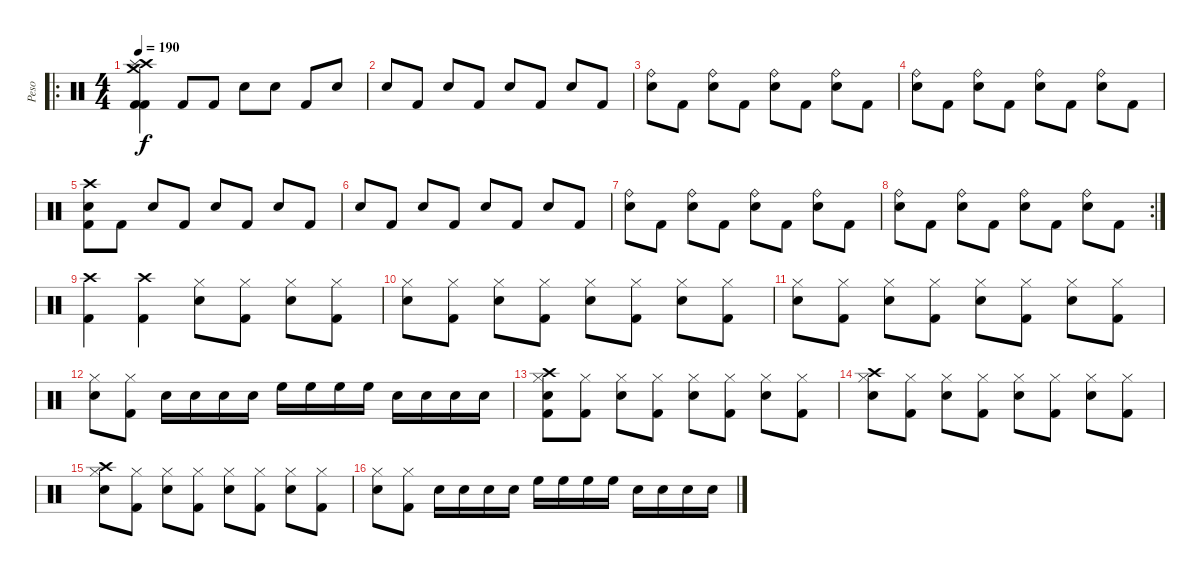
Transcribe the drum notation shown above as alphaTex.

\track ("Peso" "Peso") {instrument percussion}
\staff {score}
\articulation defaults
\ro
\ts (4 4)
\tempo 190
\clef neutral
\ks c
("Crash high (hit)" "Splash (hit)" "Crash medium (hit)" "Kick (hit) 2" "Kick (hit) 2").4{dy f} "Kick (hit) 2".8 "Kick (hit) 2".8 "Snare (hit) 2".8 "Snare (hit) 2".8 "Kick (hit) 2".8 "Snare (hit) 2".8 |
"Snare (hit) 2".8 "Kick (hit) 2".8 "Snare (hit) 2".8 "Kick (hit) 2".8 "Snare (hit) 2".8 "Kick (hit) 2".8 "Snare (hit) 2".8 "Kick (hit) 2".8 |
("Ride (bell)" "Snare (hit) 2").8 "Kick (hit) 2".8 ("Ride (bell)" "Snare (hit) 2").8 "Kick (hit) 2".8 ("Ride (bell)" "Snare (hit) 2").8 "Kick (hit) 2".8 ("Ride (bell)" "Snare (hit) 2").8 "Kick (hit) 2".8 |
("Ride (bell)" "Snare (hit) 2").8 "Kick (hit) 2".8 ("Ride (bell)" "Snare (hit) 2").8 "Kick (hit) 2".8 ("Ride (bell)" "Snare (hit) 2").8 "Kick (hit) 2".8 ("Ride (bell)" "Snare (hit) 2").8 "Kick (hit) 2".8 |
("Crash high (hit)" "Snare (hit) 2" "Kick (hit) 2").8 "Kick (hit) 2".8 "Snare (hit) 2".8 "Kick (hit) 2".8 "Snare (hit) 2".8 "Kick (hit) 2".8 "Snare (hit) 2".8 "Kick (hit) 2".8 |
"Snare (hit) 2".8 "Kick (hit) 2".8 "Snare (hit) 2".8 "Kick (hit) 2".8 "Snare (hit) 2".8 "Kick (hit) 2".8 "Snare (hit) 2".8 "Kick (hit) 2".8 |
("Ride (bell)" "Snare (hit) 2").8 "Kick (hit) 2".8 ("Ride (bell)" "Snare (hit) 2").8 "Kick (hit) 2".8 ("Ride (bell)" "Snare (hit) 2").8 "Kick (hit) 2".8 ("Ride (bell)" "Snare (hit) 2").8 "Kick (hit) 2".8 |
\rc 2
("Ride (bell)" "Snare (hit) 2").8 "Kick (hit) 2".8 ("Ride (bell)" "Snare (hit) 2").8 "Kick (hit) 2".8 ("Ride (bell)" "Snare (hit) 2").8 "Kick (hit) 2".8 ("Ride (bell)" "Snare (hit) 2").8 "Kick (hit) 2".8 |
("Crash high (hit)" "Kick (hit) 2").4 ("Crash high (hit)" "Kick (hit) 2").4 ("Hi-Hat (closed)" "Snare (hit) 2").8 ("Hi-Hat (closed)" "Kick (hit) 2").8 ("Hi-Hat (closed)" "Snare (hit) 2").8 ("Hi-Hat (closed)" "Kick (hit) 2").8 |
("Hi-Hat (closed)" "Snare (hit) 2").8 ("Hi-Hat (closed)" "Kick (hit) 2").8 ("Hi-Hat (closed)" "Snare (hit) 2").8 ("Hi-Hat (closed)" "Kick (hit) 2").8 ("Hi-Hat (closed)" "Snare (hit) 2").8 ("Hi-Hat (closed)" "Kick (hit) 2").8 ("Hi-Hat (closed)" "Snare (hit) 2").8 ("Hi-Hat (closed)" "Kick (hit) 2").8 |
("Hi-Hat (closed)" "Snare (hit) 2").8 ("Hi-Hat (closed)" "Kick (hit) 2").8 ("Hi-Hat (closed)" "Snare (hit) 2").8 ("Hi-Hat (closed)" "Kick (hit) 2").8 ("Hi-Hat (closed)" "Snare (hit) 2").8 ("Hi-Hat (closed)" "Kick (hit) 2").8 ("Hi-Hat (closed)" "Snare (hit) 2").8 ("Hi-Hat (closed)" "Kick (hit) 2").8 |
("Hi-Hat (closed)" "Snare (hit) 2").8 ("Hi-Hat (closed)" "Kick (hit) 2").8 "Snare (hit) 2".16 "Snare (hit) 2".16 "Snare (hit) 2".16 "Snare (hit) 2".16 "High Floor Tom (hit)".16 "High Floor Tom (hit)".16 "High Floor Tom (hit)".16 "High Floor Tom (hit)".16 "Snare (hit) 2".16 "Snare (hit) 2".16 "Snare (hit) 2".16 "Snare (hit) 2".16 |
("Crash high (hit)" "Hi-Hat (closed)" "Snare (hit) 2" "Kick (hit) 2").8 ("Hi-Hat (closed)" "Kick (hit) 2").8 ("Hi-Hat (closed)" "Snare (hit) 2").8 ("Hi-Hat (closed)" "Kick (hit) 2").8 ("Hi-Hat (closed)" "Snare (hit) 2").8 ("Hi-Hat (closed)" "Kick (hit) 2").8 ("Hi-Hat (closed)" "Snare (hit) 2").8 ("Hi-Hat (closed)" "Kick (hit) 2").8 |
("Crash high (hit)" "Hi-Hat (closed)" "Snare (hit) 2").8 ("Hi-Hat (closed)" "Kick (hit) 2").8 ("Hi-Hat (closed)" "Snare (hit) 2").8 ("Hi-Hat (closed)" "Kick (hit) 2").8 ("Hi-Hat (closed)" "Snare (hit) 2").8 ("Hi-Hat (closed)" "Kick (hit) 2").8 ("Hi-Hat (closed)" "Snare (hit) 2").8 ("Hi-Hat (closed)" "Kick (hit) 2").8 |
("Crash high (hit)" "Hi-Hat (closed)" "Snare (hit) 2").8 ("Hi-Hat (closed)" "Kick (hit) 2").8 ("Hi-Hat (closed)" "Snare (hit) 2").8 ("Hi-Hat (closed)" "Kick (hit) 2").8 ("Hi-Hat (closed)" "Snare (hit) 2").8 ("Hi-Hat (closed)" "Kick (hit) 2").8 ("Hi-Hat (closed)" "Snare (hit) 2").8 ("Hi-Hat (closed)" "Kick (hit) 2").8 |
("Hi-Hat (closed)" "Snare (hit) 2").8 ("Hi-Hat (closed)" "Kick (hit) 2").8 "Snare (hit) 2".16 "Snare (hit) 2".16 "Snare (hit) 2".16 "Snare (hit) 2".16 "High Floor Tom (hit)".16 "High Floor Tom (hit)".16 "High Floor Tom (hit)".16 "High Floor Tom (hit)".16 "Snare (hit) 2".16 "Snare (hit) 2".16 "Snare (hit) 2".16 "Snare (hit) 2".16
